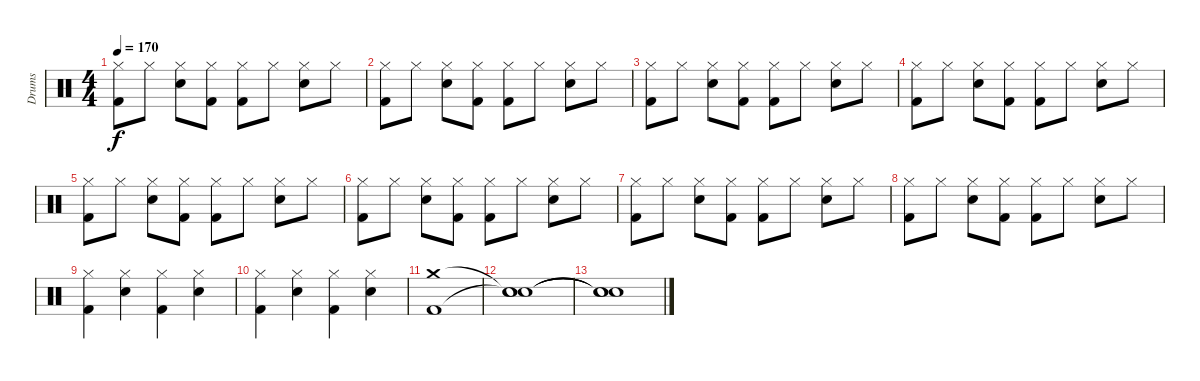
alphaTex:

\track ("Drums" "Drums") {instrument percussion}
\staff {score}
\articulation defaults
\ts (4 4)
\tempo 170
\clef neutral
\ks c
("Hi-Hat (closed)" "Kick (hit) 2").8{dy f} "Hi-Hat (closed)".8 ("Hi-Hat (closed)" "Snare (hit) 2").8 ("Hi-Hat (closed)" "Kick (hit) 2").8 ("Hi-Hat (closed)" "Kick (hit) 2").8 "Hi-Hat (closed)".8 ("Hi-Hat (closed)" "Snare (hit) 2").8 "Hi-Hat (closed)".8 |
("Hi-Hat (closed)" "Kick (hit) 2").8 "Hi-Hat (closed)".8 ("Hi-Hat (closed)" "Snare (hit) 2").8 ("Hi-Hat (closed)" "Kick (hit) 2").8 ("Hi-Hat (closed)" "Kick (hit) 2").8 "Hi-Hat (closed)".8 ("Hi-Hat (closed)" "Snare (hit) 2").8 "Hi-Hat (closed)".8 |
("Hi-Hat (closed)" "Kick (hit) 2").8 "Hi-Hat (closed)".8 ("Hi-Hat (closed)" "Snare (hit) 2").8 ("Hi-Hat (closed)" "Kick (hit) 2").8 ("Hi-Hat (closed)" "Kick (hit) 2").8 "Hi-Hat (closed)".8 ("Hi-Hat (closed)" "Snare (hit) 2").8 "Hi-Hat (closed)".8 |
("Hi-Hat (closed)" "Kick (hit) 2").8 "Hi-Hat (closed)".8 ("Hi-Hat (closed)" "Snare (hit) 2").8 ("Hi-Hat (closed)" "Kick (hit) 2").8 ("Hi-Hat (closed)" "Kick (hit) 2").8 "Hi-Hat (closed)".8 ("Hi-Hat (closed)" "Snare (hit) 2").8 "Hi-Hat (closed)".8 |
("Hi-Hat (closed)" "Kick (hit) 2").8 "Hi-Hat (closed)".8 ("Hi-Hat (closed)" "Snare (hit) 2").8 ("Hi-Hat (closed)" "Kick (hit) 2").8 ("Hi-Hat (closed)" "Kick (hit) 2").8 "Hi-Hat (closed)".8 ("Hi-Hat (closed)" "Snare (hit) 2").8 "Hi-Hat (closed)".8 |
("Hi-Hat (closed)" "Kick (hit) 2").8 "Hi-Hat (closed)".8 ("Hi-Hat (closed)" "Snare (hit) 2").8 ("Hi-Hat (closed)" "Kick (hit) 2").8 ("Hi-Hat (closed)" "Kick (hit) 2").8 "Hi-Hat (closed)".8 ("Hi-Hat (closed)" "Snare (hit) 2").8 "Hi-Hat (closed)".8 |
("Hi-Hat (closed)" "Kick (hit) 2").8 "Hi-Hat (closed)".8 ("Hi-Hat (closed)" "Snare (hit) 2").8 ("Hi-Hat (closed)" "Kick (hit) 2").8 ("Hi-Hat (closed)" "Kick (hit) 2").8 "Hi-Hat (closed)".8 ("Hi-Hat (closed)" "Snare (hit) 2").8 "Hi-Hat (closed)".8 |
("Hi-Hat (closed)" "Kick (hit) 2").8 "Hi-Hat (closed)".8 ("Hi-Hat (closed)" "Snare (hit) 2").8 ("Hi-Hat (closed)" "Kick (hit) 2").8 ("Hi-Hat (closed)" "Kick (hit) 2").8 "Hi-Hat (closed)".8 ("Hi-Hat (closed)" "Snare (hit) 2").8 "Hi-Hat (closed)".8 |
("Hi-Hat (closed)" "Kick (hit) 2").4 ("Hi-Hat (closed)" "Snare (hit) 2").4 ("Hi-Hat (closed)" "Kick (hit) 2").4 ("Hi-Hat (closed)" "Snare (hit) 2").4 |
("Hi-Hat (closed)" "Kick (hit) 2").4 ("Hi-Hat (closed)" "Snare (hit) 2").4 ("Hi-Hat (closed)" "Kick (hit) 2").4 ("Hi-Hat (closed)" "Snare (hit) 2").4 |
("Crash medium (hit)" "Kick (hit) 2").1 |
("Snare (hit)"{t} "Snare (hit)"{t} "Snare (hit)").1 |
("Snare (hit)"{t} "Snare (hit)"{t} "Snare (hit)"{t}).1
